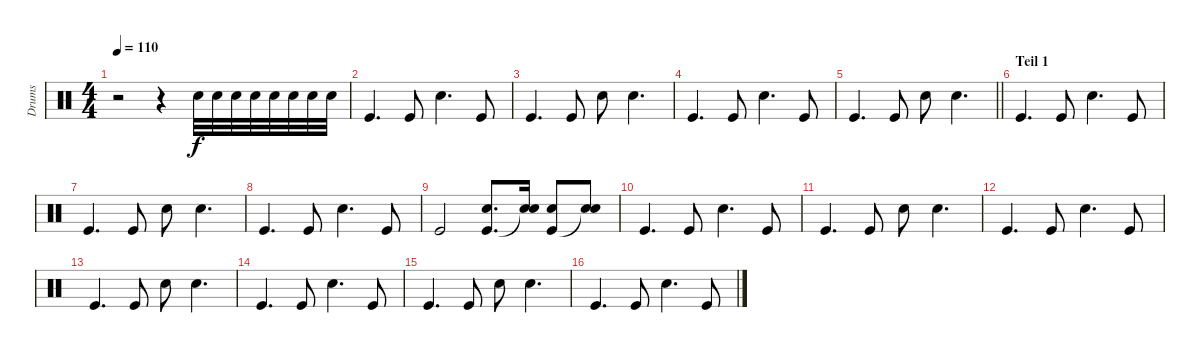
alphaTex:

\track ("Drums" "Drums") {instrument percussion}
\staff {score}
\articulation defaults
\ts (4 4)
\tempo 110
\clef neutral
\ks c
r.2{dy f} r.4 "Snare (hit) 2".32 "Snare (hit) 2".32 "Snare (hit) 2".32 "Snare (hit) 2".32 "Snare (hit) 2".32 "Snare (hit) 2".32 "Snare (hit) 2".32 "Snare (hit) 2".32 |
"Kick (hit)".4{d} "Kick (hit)".8 "Snare (hit) 2".4{d} "Kick (hit)".8 |
"Kick (hit)".4{d} "Kick (hit)".8 "Snare (hit) 2".8 "Snare (hit) 2".4{d} |
"Kick (hit)".4{d} "Kick (hit)".8 "Snare (hit) 2".4{d} "Kick (hit)".8 |
\barLineRight lightlight "Kick (hit)".4{d} "Kick (hit)".8 "Snare (hit) 2".8 "Snare (hit) 2".4{d}
|
\section ("" "Teil 1")
"Kick (hit)".4{d} "Kick (hit)".8 "Snare (hit) 2".4{d} "Kick (hit)".8 |
"Kick (hit)".4{d} "Kick (hit)".8 "Snare (hit) 2".8 "Snare (hit) 2".4{d} |
"Kick (hit)".4{d} "Kick (hit)".8 "Snare (hit) 2".4{d} "Kick (hit)".8 |
"Kick (hit)".2 ("Kick (hit)" "Snare (hit) 2").8{d} ("Snare (hit)"{t} "Snare (hit) 2").16 ("Kick (hit)" "Snare (hit) 2").8 ("Snare (hit)"{t} "Snare (hit) 2").8 |
"Kick (hit)".4{d} "Kick (hit)".8 "Snare (hit) 2".4{d} "Kick (hit)".8 |
"Kick (hit)".4{d} "Kick (hit)".8 "Snare (hit) 2".8 "Snare (hit) 2".4{d} |
"Kick (hit)".4{d} "Kick (hit)".8 "Snare (hit) 2".4{d} "Kick (hit)".8 |
"Kick (hit)".4{d} "Kick (hit)".8 "Snare (hit) 2".8 "Snare (hit) 2".4{d} |
"Kick (hit)".4{d} "Kick (hit)".8 "Snare (hit) 2".4{d} "Kick (hit)".8 |
"Kick (hit)".4{d} "Kick (hit)".8 "Snare (hit) 2".8 "Snare (hit) 2".4{d} |
"Kick (hit)".4{d} "Kick (hit)".8 "Snare (hit) 2".4{d} "Kick (hit)".8
